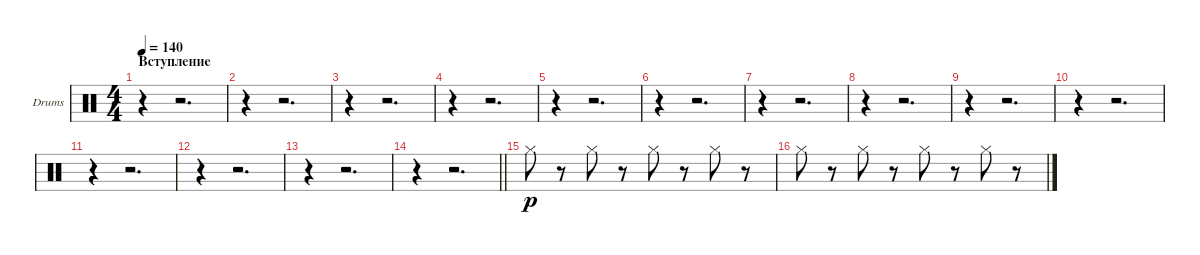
\bracketExtendMode groupsimilarinstruments
\firstSystemTrackNameOrientation horizontal
\otherSystemsTrackNameOrientation horizontal
\track ("Drumkit" "Drums") {instrument percussion}
\staff {score}
\articulation defaults
\ts (4 4)
\beaming (8 2 2 2 2)
\section ("" "Вступление")
\tempo 140
\clef neutral
\ks c
r.4{dy p} r.2{d} |
r.4 r.2{d} |
r.4 r.2{d} |
r.4 r.2{d} |
r.4 r.2{d} |
r.4 r.2{d} |
r.4 r.2{d} |
r.4 r.2{d} |
r.4 r.2{d} |
r.4 r.2{d} |
r.4 r.2{d} |
r.4 r.2{d} |
r.4 r.2{d} |
\barLineRight lightlight
r.4 r.2{d} |
"Hi-Hat (closed)".8 r.8 "Hi-Hat (closed)".8 r.8 "Hi-Hat (closed)".8 r.8 "Hi-Hat (closed)".8 r.8 |
"Hi-Hat (closed)".8 r.8 "Hi-Hat (closed)".8 r.8 "Hi-Hat (closed)".8 r.8 "Hi-Hat (closed)".8 r.8
